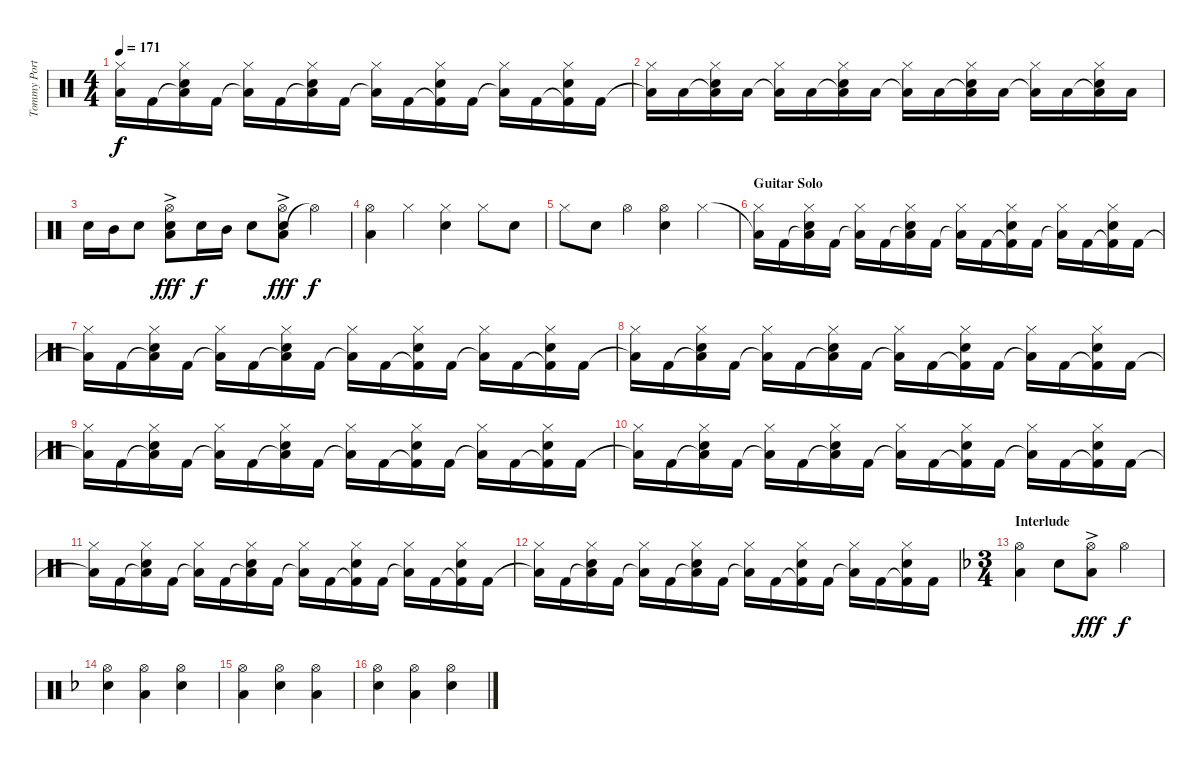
\track ("Tommy Portino" "Tommy Port") {instrument percussion}
\staff {score}
\articulation defaults
\ts (4 4)
\tempo 171
\clef neutral
\ks aminor
("Low Floor Tom (hit)"{t} "Hi-Hat (closed)").16{dy f} "Kick (hit) 2".16 ("Low Floor Tom (hit)"{t} "Electric Snare (hit)" "Hi-Hat (closed)").16 "Kick (hit) 2".16 ("Low Floor Tom (hit)"{t} "Hi-Hat (closed)").16 "Kick (hit) 2".16 ("Low Floor Tom (hit)"{t} "Electric Snare (hit)" "Hi-Hat (closed)").16 "Kick (hit) 2".16 ("Low Floor Tom (hit)"{t} "Hi-Hat (closed)").16 "Kick (hit) 2".16 ("Kick (hit) 2"{t} "Electric Snare (hit)" "Hi-Hat (closed)").16 "Kick (hit) 2".16 ("Low Floor Tom (hit)"{t} "Hi-Hat (closed)").16 "Kick (hit) 2".16 ("Kick (hit) 2"{t} "Electric Snare (hit)" "Hi-Hat (closed)").16 "Kick (hit) 2".16 |
("Low Floor Tom (hit)"{t} "Hi-Hat (closed)").16 "Low Floor Tom (hit)".16 ("Low Floor Tom (hit)"{t} "Electric Snare (hit)" "Hi-Hat (closed)").16 "Low Floor Tom (hit)".16 ("Low Floor Tom (hit)"{t} "Hi-Hat (closed)").16 "Low Floor Tom (hit)".16 ("Low Floor Tom (hit)"{t} "Electric Snare (hit)" "Hi-Hat (closed)").16 "Low Floor Tom (hit)".16 ("Low Floor Tom (hit)"{t} "Hi-Hat (closed)").16 "Low Floor Tom (hit)".16 ("Low Floor Tom (hit)"{t} "Electric Snare (hit)" "Hi-Hat (closed)").16 "Low Floor Tom (hit)".16 ("Low Floor Tom (hit)"{t} "Hi-Hat (closed)").16 "Low Floor Tom (hit)".16 ("Low Floor Tom (hit)"{t} "Electric Snare (hit)" "Hi-Hat (closed)").16 "Low Floor Tom (hit)".16 |
"Electric Snare (hit)".16 "Mid Tom (hit)".16 "Electric Snare (hit)".8 ("Low Floor Tom (hit)" "Electric Snare (hit)"{ac} "Hi-Hat (open)").8{dy fff} "Electric Snare (hit)".16{dy f} "Mid Tom (hit)".16 "Electric Snare (hit)".8 ("Low Floor Tom (hit)"{ac} "Electric Snare (hit)" "Hi-Hat (open)").8{dy fff} "Hi-Hat (open)"{t}.4{dy f} |
("Low Floor Tom (hit)" "Hi-Hat (open)").4 "Hi-Hat (closed)".4 ("Electric Snare (hit)" "Hi-Hat (closed)").4 "Hi-Hat (closed)".8 "Electric Snare (hit)".8 |
"Hi-Hat (closed)".8 "Electric Snare (hit)".8 "Hi-Hat (open)".4 ("Electric Snare (hit)" "Hi-Hat (open)").4 "Hi-Hat (closed)".4 |
\section ("" "Guitar Solo")
("Low Floor Tom (hit)"{t} "Hi-Hat (closed)").16 "Kick (hit) 2".16 ("Low Floor Tom (hit)"{t} "Electric Snare (hit)" "Hi-Hat (closed)").16 "Kick (hit) 2".16 ("Low Floor Tom (hit)"{t} "Hi-Hat (closed)").16 "Kick (hit) 2".16 ("Low Floor Tom (hit)"{t} "Electric Snare (hit)" "Hi-Hat (closed)").16 "Kick (hit) 2".16 ("Low Floor Tom (hit)"{t} "Hi-Hat (closed)").16 "Kick (hit) 2".16 ("Kick (hit) 2"{t} "Electric Snare (hit)" "Hi-Hat (closed)").16 "Kick (hit) 2".16 ("Low Floor Tom (hit)"{t} "Hi-Hat (closed)").16 "Kick (hit) 2".16 ("Kick (hit) 2"{t} "Electric Snare (hit)" "Hi-Hat (closed)").16 "Kick (hit) 2".16 |
("Low Floor Tom (hit)"{t} "Hi-Hat (closed)").16 "Kick (hit) 2".16 ("Low Floor Tom (hit)"{t} "Electric Snare (hit)" "Hi-Hat (closed)").16 "Kick (hit) 2".16 ("Low Floor Tom (hit)"{t} "Hi-Hat (closed)").16 "Kick (hit) 2".16 ("Low Floor Tom (hit)"{t} "Electric Snare (hit)" "Hi-Hat (closed)").16 "Kick (hit) 2".16 ("Low Floor Tom (hit)"{t} "Hi-Hat (closed)").16 "Kick (hit) 2".16 ("Kick (hit) 2"{t} "Electric Snare (hit)" "Hi-Hat (closed)").16 "Kick (hit) 2".16 ("Low Floor Tom (hit)"{t} "Hi-Hat (closed)").16 "Kick (hit) 2".16 ("Kick (hit) 2"{t} "Electric Snare (hit)" "Hi-Hat (closed)").16 "Kick (hit) 2".16 |
("Low Floor Tom (hit)"{t} "Hi-Hat (closed)").16 "Kick (hit) 2".16 ("Low Floor Tom (hit)"{t} "Electric Snare (hit)" "Hi-Hat (closed)").16 "Kick (hit) 2".16 ("Low Floor Tom (hit)"{t} "Hi-Hat (closed)").16 "Kick (hit) 2".16 ("Low Floor Tom (hit)"{t} "Electric Snare (hit)" "Hi-Hat (closed)").16 "Kick (hit) 2".16 ("Low Floor Tom (hit)"{t} "Hi-Hat (closed)").16 "Kick (hit) 2".16 ("Kick (hit) 2"{t} "Electric Snare (hit)" "Hi-Hat (closed)").16 "Kick (hit) 2".16 ("Low Floor Tom (hit)"{t} "Hi-Hat (closed)").16 "Kick (hit) 2".16 ("Kick (hit) 2"{t} "Electric Snare (hit)" "Hi-Hat (closed)").16 "Kick (hit) 2".16 |
("Low Floor Tom (hit)"{t} "Hi-Hat (closed)").16 "Kick (hit) 2".16 ("Low Floor Tom (hit)"{t} "Electric Snare (hit)" "Hi-Hat (closed)").16 "Kick (hit) 2".16 ("Low Floor Tom (hit)"{t} "Hi-Hat (closed)").16 "Kick (hit) 2".16 ("Low Floor Tom (hit)"{t} "Electric Snare (hit)" "Hi-Hat (closed)").16 "Kick (hit) 2".16 ("Low Floor Tom (hit)"{t} "Hi-Hat (closed)").16 "Kick (hit) 2".16 ("Kick (hit) 2"{t} "Electric Snare (hit)" "Hi-Hat (closed)").16 "Kick (hit) 2".16 ("Low Floor Tom (hit)"{t} "Hi-Hat (closed)").16 "Kick (hit) 2".16 ("Kick (hit) 2"{t} "Electric Snare (hit)" "Hi-Hat (closed)").16 "Kick (hit) 2".16 |
("Low Floor Tom (hit)"{t} "Hi-Hat (closed)").16 "Kick (hit) 2".16 ("Low Floor Tom (hit)"{t} "Electric Snare (hit)" "Hi-Hat (closed)").16 "Kick (hit) 2".16 ("Low Floor Tom (hit)"{t} "Hi-Hat (closed)").16 "Kick (hit) 2".16 ("Low Floor Tom (hit)"{t} "Electric Snare (hit)" "Hi-Hat (closed)").16 "Kick (hit) 2".16 ("Low Floor Tom (hit)"{t} "Hi-Hat (closed)").16 "Kick (hit) 2".16 ("Kick (hit) 2"{t} "Electric Snare (hit)" "Hi-Hat (closed)").16 "Kick (hit) 2".16 ("Low Floor Tom (hit)"{t} "Hi-Hat (closed)").16 "Kick (hit) 2".16 ("Kick (hit) 2"{t} "Electric Snare (hit)" "Hi-Hat (closed)").16 "Kick (hit) 2".16 |
("Low Floor Tom (hit)"{t} "Hi-Hat (closed)").16 "Kick (hit) 2".16 ("Low Floor Tom (hit)"{t} "Electric Snare (hit)" "Hi-Hat (closed)").16 "Kick (hit) 2".16 ("Low Floor Tom (hit)"{t} "Hi-Hat (closed)").16 "Kick (hit) 2".16 ("Low Floor Tom (hit)"{t} "Electric Snare (hit)" "Hi-Hat (closed)").16 "Kick (hit) 2".16 ("Low Floor Tom (hit)"{t} "Hi-Hat (closed)").16 "Kick (hit) 2".16 ("Kick (hit) 2"{t} "Electric Snare (hit)" "Hi-Hat (closed)").16 "Kick (hit) 2".16 ("Low Floor Tom (hit)"{t} "Hi-Hat (closed)").16 "Kick (hit) 2".16 ("Kick (hit) 2"{t} "Electric Snare (hit)" "Hi-Hat (closed)").16 "Kick (hit) 2".16 |
("Low Floor Tom (hit)"{t} "Hi-Hat (closed)").16 "Kick (hit) 2".16 ("Low Floor Tom (hit)"{t} "Electric Snare (hit)" "Hi-Hat (closed)").16 "Kick (hit) 2".16 ("Low Floor Tom (hit)"{t} "Hi-Hat (closed)").16 "Kick (hit) 2".16 ("Low Floor Tom (hit)"{t} "Electric Snare (hit)" "Hi-Hat (closed)").16 "Kick (hit) 2".16 ("Low Floor Tom (hit)"{t} "Hi-Hat (closed)").16 "Kick (hit) 2".16 ("Kick (hit) 2"{t} "Electric Snare (hit)" "Hi-Hat (closed)").16 "Kick (hit) 2".16 ("Low Floor Tom (hit)"{t} "Hi-Hat (closed)").16 "Kick (hit) 2".16 ("Kick (hit) 2"{t} "Electric Snare (hit)" "Hi-Hat (closed)").16 "Kick (hit) 2".16 |
\ts (3 4)
\section ("" "Interlude ")
\ks dminor
("Low Floor Tom (hit)" "Hi-Hat (open)").4 "Electric Snare (hit)".8 ("Low Floor Tom (hit)" "Hi-Hat (open)"{ac}).8{dy fff} "Hi-Hat (open)".4{dy f} |
("Electric Snare (hit)" "Hi-Hat (open)").4 ("Low Floor Tom (hit)" "Hi-Hat (open)").4 ("Electric Snare (hit)" "Hi-Hat (open)").4 |
("Low Floor Tom (hit)" "Hi-Hat (open)").4 ("Electric Snare (hit)" "Hi-Hat (open)").4 ("Low Floor Tom (hit)" "Hi-Hat (open)").4 |
("Electric Snare (hit)" "Hi-Hat (open)").4 ("Low Floor Tom (hit)" "Hi-Hat (open)").4 ("Electric Snare (hit)" "Hi-Hat (open)").4
